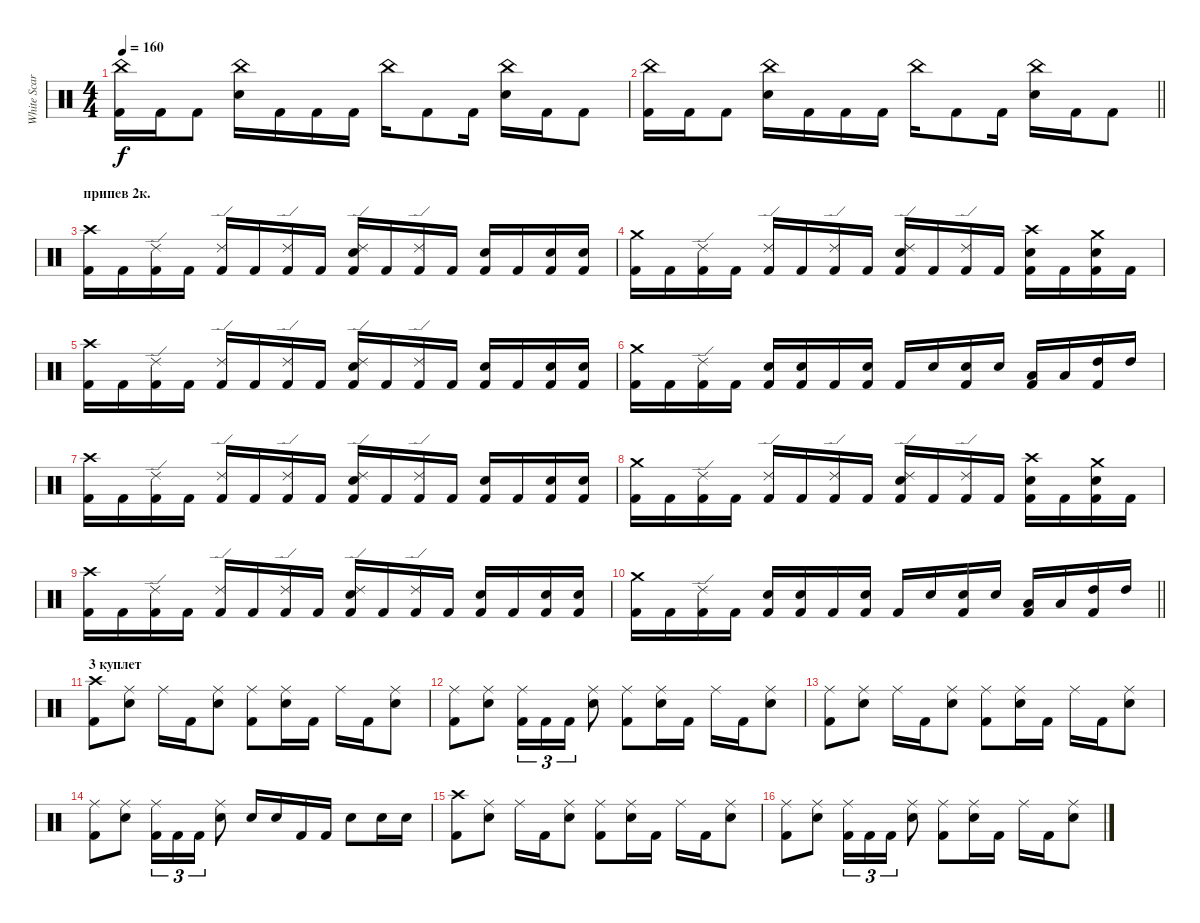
\track ("White Scar" "White Scar") {instrument percussion}
\staff {score}
\articulation defaults
\ts (4 4)
\tempo 160
\clef neutral
\ks c
("China (hit)" "Kick (hit) 2").16{dy f} "Kick (hit) 2".16 "Kick (hit) 2".8 ("China (hit)" "Snare (hit) 2").16 "Kick (hit) 2".16 "Kick (hit) 2".16 "Kick (hit) 2".16 "China (hit)".16 "Kick (hit) 2".8 "Kick (hit) 2".16 ("China (hit)" "Snare (hit) 2").16 "Kick (hit) 2".16 "Kick (hit) 2".8 |
\barLineRight lightlight
("China (hit)" "Kick (hit) 2").16 "Kick (hit) 2".16 "Kick (hit) 2".8 ("China (hit)" "Snare (hit) 2").16 "Kick (hit) 2".16 "Kick (hit) 2".16 "Kick (hit) 2".16 "China (hit)".16 "Kick (hit) 2".8 "Kick (hit) 2".16 ("China (hit)" "Snare (hit) 2").16 "Kick (hit) 2".16 "Kick (hit) 2".8 |
\section ("" "припев 2к.")
("Crash high (hit)" "Kick (hit) 2").16 "Kick (hit) 2".16 ("Ride (edge) 2" "Kick (hit) 2").16 "Kick (hit) 2".16 ("Ride (edge) 2" "Kick (hit) 2").16 "Kick (hit) 2".16 ("Ride (edge) 2" "Kick (hit) 2").16 "Kick (hit) 2".16 ("Snare (hit) 2" "Ride (edge) 2" "Kick (hit) 2").16 "Kick (hit) 2".16 ("Ride (edge) 2" "Kick (hit) 2").16 "Kick (hit) 2".16 ("Snare (hit) 2" "Kick (hit) 2").16 "Kick (hit) 2".16 ("Snare (hit) 2" "Kick (hit) 2").16 ("Snare (hit) 2" "Kick (hit) 2").16 |
("Crash medium (hit)" "Kick (hit) 2").16 "Kick (hit) 2".16 ("Ride (edge) 2" "Kick (hit) 2").16 "Kick (hit) 2".16 ("Ride (edge) 2" "Kick (hit) 2").16 "Kick (hit) 2".16 ("Ride (edge) 2" "Kick (hit) 2").16 "Kick (hit) 2".16 ("Snare (hit) 2" "Ride (edge) 2" "Kick (hit) 2").16 "Kick (hit) 2".16 ("Ride (edge) 2" "Kick (hit) 2").16 "Kick (hit) 2".16 ("Snare (hit) 2" "Crash high (hit)" "Kick (hit) 2").16 "Kick (hit) 2".16 ("Snare (hit) 2" "Crash medium (hit)" "Kick (hit) 2").16 "Kick (hit) 2".16 |
("Crash high (hit)" "Kick (hit) 2").16 "Kick (hit) 2".16 ("Ride (edge) 2" "Kick (hit) 2").16 "Kick (hit) 2".16 ("Ride (edge) 2" "Kick (hit) 2").16 "Kick (hit) 2".16 ("Ride (edge) 2" "Kick (hit) 2").16 "Kick (hit) 2".16 ("Snare (hit) 2" "Ride (edge) 2" "Kick (hit) 2").16 "Kick (hit) 2".16 ("Ride (edge) 2" "Kick (hit) 2").16 "Kick (hit) 2".16 ("Snare (hit) 2" "Kick (hit) 2").16 "Kick (hit) 2".16 ("Snare (hit) 2" "Kick (hit) 2").16 ("Snare (hit) 2" "Kick (hit) 2").16 |
("Crash medium (hit)" "Kick (hit) 2").16 "Kick (hit) 2".16 ("Ride (edge) 2" "Kick (hit) 2").16 "Kick (hit) 2".16 ("Snare (hit) 2" "Kick (hit) 2").16 ("Snare (hit) 2" "Kick (hit) 2").16 "Kick (hit) 2".16 ("Snare (hit) 2" "Kick (hit) 2").16 "Kick (hit) 2".16 "Snare (hit) 2".16 ("Snare (hit) 2" "Kick (hit) 2").16 "Snare (hit) 2".16 ("Low Tom (hit)" "Kick (hit) 2").16 "Low Tom (hit)".16 ("High Tom (hit)" "Kick (hit) 2").16 "High Tom (hit)".16 |
("Crash high (hit)" "Kick (hit) 2").16 "Kick (hit) 2".16 ("Ride (edge) 2" "Kick (hit) 2").16 "Kick (hit) 2".16 ("Ride (edge) 2" "Kick (hit) 2").16 "Kick (hit) 2".16 ("Ride (edge) 2" "Kick (hit) 2").16 "Kick (hit) 2".16 ("Snare (hit) 2" "Ride (edge) 2" "Kick (hit) 2").16 "Kick (hit) 2".16 ("Ride (edge) 2" "Kick (hit) 2").16 "Kick (hit) 2".16 ("Snare (hit) 2" "Kick (hit) 2").16 "Kick (hit) 2".16 ("Snare (hit) 2" "Kick (hit) 2").16 ("Snare (hit) 2" "Kick (hit) 2").16 |
("Crash medium (hit)" "Kick (hit) 2").16 "Kick (hit) 2".16 ("Ride (edge) 2" "Kick (hit) 2").16 "Kick (hit) 2".16 ("Ride (edge) 2" "Kick (hit) 2").16 "Kick (hit) 2".16 ("Ride (edge) 2" "Kick (hit) 2").16 "Kick (hit) 2".16 ("Snare (hit) 2" "Ride (edge) 2" "Kick (hit) 2").16 "Kick (hit) 2".16 ("Ride (edge) 2" "Kick (hit) 2").16 "Kick (hit) 2".16 ("Snare (hit) 2" "Crash high (hit)" "Kick (hit) 2").16 "Kick (hit) 2".16 ("Snare (hit) 2" "Crash medium (hit)" "Kick (hit) 2").16 "Kick (hit) 2".16 |
("Crash high (hit)" "Kick (hit) 2").16 "Kick (hit) 2".16 ("Ride (edge) 2" "Kick (hit) 2").16 "Kick (hit) 2".16 ("Ride (edge) 2" "Kick (hit) 2").16 "Kick (hit) 2".16 ("Ride (edge) 2" "Kick (hit) 2").16 "Kick (hit) 2".16 ("Snare (hit) 2" "Ride (edge) 2" "Kick (hit) 2").16 "Kick (hit) 2".16 ("Ride (edge) 2" "Kick (hit) 2").16 "Kick (hit) 2".16 ("Snare (hit) 2" "Kick (hit) 2").16 "Kick (hit) 2".16 ("Snare (hit) 2" "Kick (hit) 2").16 ("Snare (hit) 2" "Kick (hit) 2").16 |
\barLineRight lightlight
("Crash medium (hit)" "Kick (hit) 2").16 "Kick (hit) 2".16 ("Ride (edge) 2" "Kick (hit) 2").16 "Kick (hit) 2".16 ("Snare (hit) 2" "Kick (hit) 2").16 ("Snare (hit) 2" "Kick (hit) 2").16 "Kick (hit) 2".16 ("Snare (hit) 2" "Kick (hit) 2").16 "Kick (hit) 2".16 "Snare (hit) 2".16 ("Snare (hit) 2" "Kick (hit) 2").16 "Snare (hit) 2".16 ("Low Tom (hit)" "Kick (hit) 2").16 "Low Tom (hit)".16 ("High Tom (hit)" "Kick (hit) 2").16 "High Tom (hit)".16 |
\section ("" "3 куплет")
("Crash high (hit)" "Kick (hit) 2").8 ("Ride (middle)" "Snare (hit) 2").8 "Ride (middle)".16 "Kick (hit) 2".16 ("Ride (middle)" "Snare (hit) 2").8 ("Ride (middle)" "Kick (hit) 2").8 ("Ride (middle)" "Snare (hit) 2").16 "Kick (hit) 2".16 "Ride (middle)".16 "Kick (hit) 2".16 ("Ride (middle)" "Snare (hit) 2").8 |
("Ride (middle)" "Kick (hit) 2").8 ("Ride (middle)" "Snare (hit) 2").8 ("Ride (middle)" "Kick (hit) 2").16{tu (3 2)} "Kick (hit) 2".16{tu (3 2)} "Kick (hit) 2".16{tu (3 2)} ("Ride (middle)" "Snare (hit) 2").8 ("Ride (middle)" "Kick (hit) 2").8 ("Ride (middle)" "Snare (hit) 2").16 "Kick (hit) 2".16 "Ride (middle)".16 "Kick (hit) 2".16 ("Ride (middle)" "Snare (hit) 2").8 |
("Ride (middle)" "Kick (hit) 2").8 ("Ride (middle)" "Snare (hit) 2").8 "Ride (middle)".16 "Kick (hit) 2".16 ("Ride (middle)" "Snare (hit) 2").8 ("Ride (middle)" "Kick (hit) 2").8 ("Ride (middle)" "Snare (hit) 2").16 "Kick (hit) 2".16 "Ride (middle)".16 "Kick (hit) 2".16 ("Ride (middle)" "Snare (hit) 2").8 |
("Ride (middle)" "Kick (hit) 2").8 ("Ride (middle)" "Snare (hit) 2").8 ("Ride (middle)" "Kick (hit) 2").16{tu (3 2)} "Kick (hit) 2".16{tu (3 2)} "Kick (hit) 2".16{tu (3 2)} ("Ride (middle)" "Snare (hit) 2").8 "Snare (hit) 2".16 "Snare (hit) 2".16 "Kick (hit) 2".16 "Kick (hit) 2".16 "Snare (hit) 2".8 "Snare (hit) 2".16 "Snare (hit) 2".16 |
("Crash high (hit)" "Kick (hit) 2").8 ("Ride (middle)" "Snare (hit) 2").8 "Ride (middle)".16 "Kick (hit) 2".16 ("Ride (middle)" "Snare (hit) 2").8 ("Ride (middle)" "Kick (hit) 2").8 ("Ride (middle)" "Snare (hit) 2").16 "Kick (hit) 2".16 "Ride (middle)".16 "Kick (hit) 2".16 ("Ride (middle)" "Snare (hit) 2").8 |
("Ride (middle)" "Kick (hit) 2").8 ("Ride (middle)" "Snare (hit) 2").8 ("Ride (middle)" "Kick (hit) 2").16{tu (3 2)} "Kick (hit) 2".16{tu (3 2)} "Kick (hit) 2".16{tu (3 2)} ("Ride (middle)" "Snare (hit) 2").8 ("Ride (middle)" "Kick (hit) 2").8 ("Ride (middle)" "Snare (hit) 2").16 "Kick (hit) 2".16 "Ride (middle)".16 "Kick (hit) 2".16 ("Ride (middle)" "Snare (hit) 2").8
